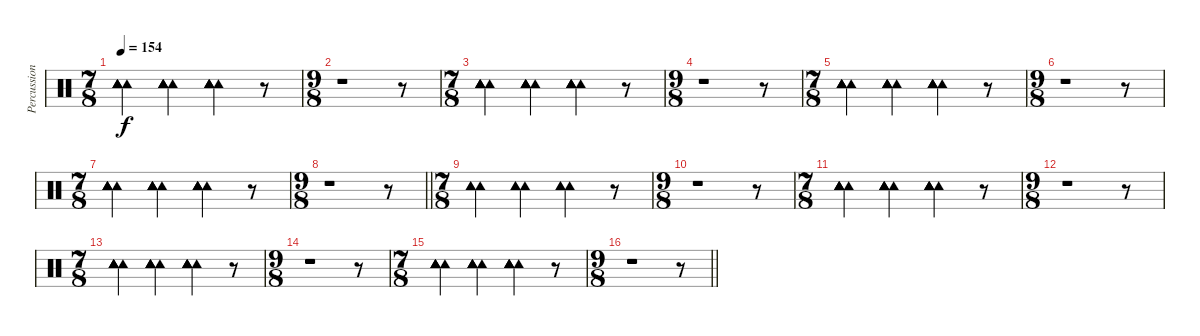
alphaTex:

\track ("Percussions" "Percussion") {instrument percussion}
\staff {score}
\articulation defaults
\ts (7 8)
\tempo 154
\clef neutral
\ks c
("Tambourine (hit)" "Tambourine (hit)" "Tambourine (hit)" "Tambourine (hit)" "Tambourine (hit)").4{dy f} ("Tambourine (hit)" "Tambourine (hit)" "Tambourine (hit)" "Tambourine (hit)" "Tambourine (hit)").4 ("Tambourine (hit)" "Tambourine (hit)" "Tambourine (hit)" "Tambourine (hit)" "Tambourine (hit)").4 r.8 |
\ts (9 8)
r.1 r.8 |
\ts (7 8)
("Tambourine (hit)" "Tambourine (hit)" "Tambourine (hit)" "Tambourine (hit)" "Tambourine (hit)").4 ("Tambourine (hit)" "Tambourine (hit)" "Tambourine (hit)" "Tambourine (hit)" "Tambourine (hit)").4 ("Tambourine (hit)" "Tambourine (hit)" "Tambourine (hit)" "Tambourine (hit)" "Tambourine (hit)").4 r.8 |
\ts (9 8)
r.1 r.8 |
\ts (7 8)
("Tambourine (hit)" "Tambourine (hit)" "Tambourine (hit)" "Tambourine (hit)" "Tambourine (hit)").4 ("Tambourine (hit)" "Tambourine (hit)" "Tambourine (hit)" "Tambourine (hit)" "Tambourine (hit)").4 ("Tambourine (hit)" "Tambourine (hit)" "Tambourine (hit)" "Tambourine (hit)" "Tambourine (hit)").4 r.8 |
\ts (9 8)
r.1 r.8 |
\ts (7 8)
("Tambourine (hit)" "Tambourine (hit)" "Tambourine (hit)" "Tambourine (hit)" "Tambourine (hit)").4 ("Tambourine (hit)" "Tambourine (hit)" "Tambourine (hit)" "Tambourine (hit)" "Tambourine (hit)").4 ("Tambourine (hit)" "Tambourine (hit)" "Tambourine (hit)" "Tambourine (hit)" "Tambourine (hit)").4 r.8 |
\ts (9 8)
\barLineRight lightlight
r.1 r.8 |
\ts (7 8)
("Tambourine (hit)" "Tambourine (hit)" "Tambourine (hit)").4 ("Tambourine (hit)" "Tambourine (hit)" "Tambourine (hit)").4 ("Tambourine (hit)" "Tambourine (hit)" "Tambourine (hit)").4 r.8 |
\ts (9 8)
r.1 r.8 |
\ts (7 8)
("Tambourine (hit)" "Tambourine (hit)" "Tambourine (hit)" "Tambourine (hit)" "Tambourine (hit)").4 ("Tambourine (hit)" "Tambourine (hit)" "Tambourine (hit)" "Tambourine (hit)" "Tambourine (hit)").4 ("Tambourine (hit)" "Tambourine (hit)" "Tambourine (hit)" "Tambourine (hit)" "Tambourine (hit)").4 r.8 |
\ts (9 8)
r.1 r.8 |
\ts (7 8)
("Tambourine (hit)" "Tambourine (hit)" "Tambourine (hit)" "Tambourine (hit)" "Tambourine (hit)").4 ("Tambourine (hit)" "Tambourine (hit)" "Tambourine (hit)" "Tambourine (hit)" "Tambourine (hit)").4 ("Tambourine (hit)" "Tambourine (hit)" "Tambourine (hit)" "Tambourine (hit)" "Tambourine (hit)").4 r.8 |
\ts (9 8)
r.1 r.8 |
\ts (7 8)
("Tambourine (hit)" "Tambourine (hit)" "Tambourine (hit)" "Tambourine (hit)" "Tambourine (hit)").4 ("Tambourine (hit)" "Tambourine (hit)" "Tambourine (hit)" "Tambourine (hit)" "Tambourine (hit)").4 ("Tambourine (hit)" "Tambourine (hit)" "Tambourine (hit)" "Tambourine (hit)" "Tambourine (hit)").4 r.8 |
\ts (9 8)
\barLineRight lightlight
r.1 r.8
